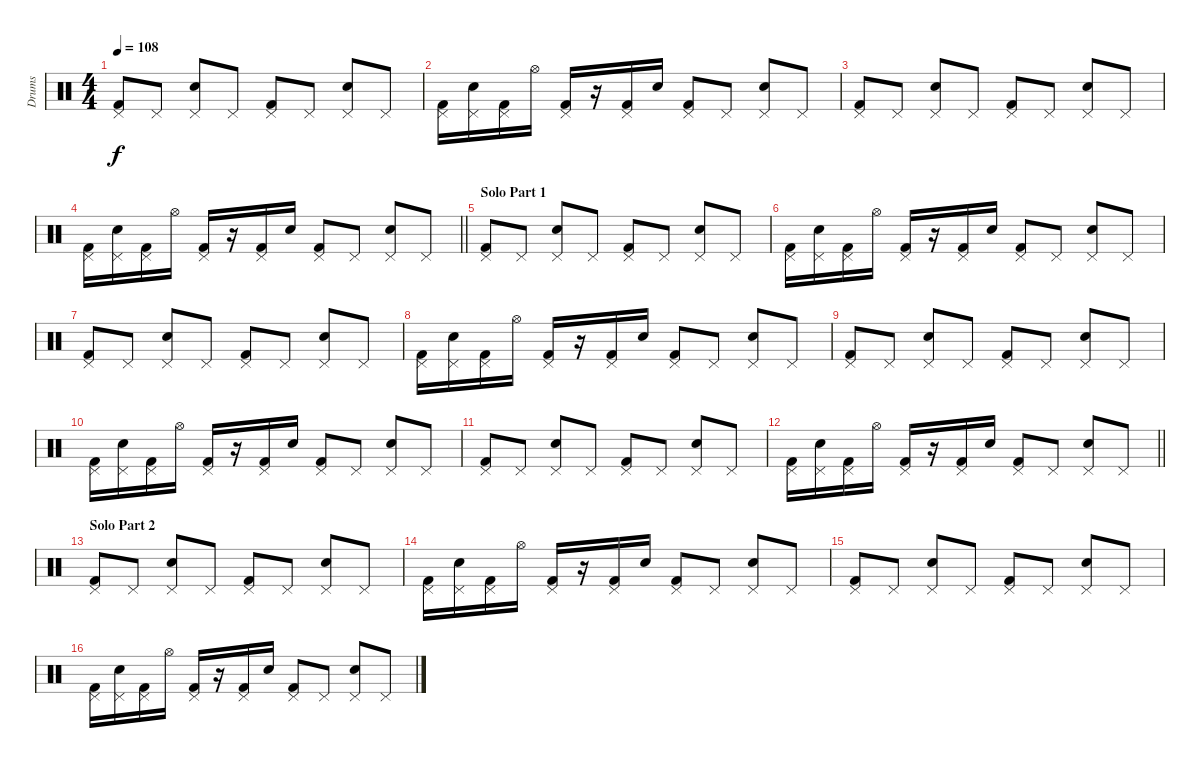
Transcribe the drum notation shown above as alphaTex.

\track ("Drums" "Drums") {instrument percussion}
\staff {score}
\articulation defaults
\ts (4 4)
\tempo 108
\clef neutral
\ks c
("Pedal Hi-Hat (hit)" "Kick (hit) 2").8{dy f} "Pedal Hi-Hat (hit)".8 ("Pedal Hi-Hat (hit)" "Electric Snare (hit)").8 "Pedal Hi-Hat (hit)".8 ("Pedal Hi-Hat (hit)" "Kick (hit) 2").8 "Pedal Hi-Hat (hit)".8 ("Pedal Hi-Hat (hit)" "Electric Snare (hit)").8 "Pedal Hi-Hat (hit)".8 |
("Pedal Hi-Hat (hit)" "Kick (hit) 2").16 ("Pedal Hi-Hat (hit)" "Electric Snare (hit)").16 ("Pedal Hi-Hat (hit)" "Kick (hit) 2").16 "Hi-Hat (open)".16 ("Pedal Hi-Hat (hit)" "Kick (hit) 2").16 r.16 ("Pedal Hi-Hat (hit)" "Kick (hit) 2").16 "Electric Snare (hit)".16 ("Pedal Hi-Hat (hit)" "Kick (hit) 2").8 "Pedal Hi-Hat (hit)".8 ("Pedal Hi-Hat (hit)" "Electric Snare (hit)").8 "Pedal Hi-Hat (hit)".8 |
("Pedal Hi-Hat (hit)" "Kick (hit) 2").8 "Pedal Hi-Hat (hit)".8 ("Pedal Hi-Hat (hit)" "Electric Snare (hit)").8 "Pedal Hi-Hat (hit)".8 ("Pedal Hi-Hat (hit)" "Kick (hit) 2").8 "Pedal Hi-Hat (hit)".8 ("Pedal Hi-Hat (hit)" "Electric Snare (hit)").8 "Pedal Hi-Hat (hit)".8 |
\barLineRight lightlight
("Pedal Hi-Hat (hit)" "Kick (hit) 2").16 ("Pedal Hi-Hat (hit)" "Electric Snare (hit)").16 ("Pedal Hi-Hat (hit)" "Kick (hit) 2").16 "Hi-Hat (open)".16 ("Pedal Hi-Hat (hit)" "Kick (hit) 2").16 r.16 ("Pedal Hi-Hat (hit)" "Kick (hit) 2").16 "Electric Snare (hit)".16 ("Pedal Hi-Hat (hit)" "Kick (hit) 2").8 "Pedal Hi-Hat (hit)".8 ("Pedal Hi-Hat (hit)" "Electric Snare (hit)").8 "Pedal Hi-Hat (hit)".8 |
\section ("" "Solo Part 1")
("Pedal Hi-Hat (hit)" "Kick (hit) 2").8 "Pedal Hi-Hat (hit)".8 ("Pedal Hi-Hat (hit)" "Electric Snare (hit)").8 "Pedal Hi-Hat (hit)".8 ("Pedal Hi-Hat (hit)" "Kick (hit) 2").8 "Pedal Hi-Hat (hit)".8 ("Pedal Hi-Hat (hit)" "Electric Snare (hit)").8 "Pedal Hi-Hat (hit)".8 |
("Pedal Hi-Hat (hit)" "Kick (hit) 2").16 ("Pedal Hi-Hat (hit)" "Electric Snare (hit)").16 ("Pedal Hi-Hat (hit)" "Kick (hit) 2").16 "Hi-Hat (open)".16 ("Pedal Hi-Hat (hit)" "Kick (hit) 2").16 r.16 ("Pedal Hi-Hat (hit)" "Kick (hit) 2").16 "Electric Snare (hit)".16 ("Pedal Hi-Hat (hit)" "Kick (hit) 2").8 "Pedal Hi-Hat (hit)".8 ("Pedal Hi-Hat (hit)" "Electric Snare (hit)").8 "Pedal Hi-Hat (hit)".8 |
("Pedal Hi-Hat (hit)" "Kick (hit) 2").8 "Pedal Hi-Hat (hit)".8 ("Pedal Hi-Hat (hit)" "Electric Snare (hit)").8 "Pedal Hi-Hat (hit)".8 ("Pedal Hi-Hat (hit)" "Kick (hit) 2").8 "Pedal Hi-Hat (hit)".8 ("Pedal Hi-Hat (hit)" "Electric Snare (hit)").8 "Pedal Hi-Hat (hit)".8 |
("Pedal Hi-Hat (hit)" "Kick (hit) 2").16 ("Pedal Hi-Hat (hit)" "Electric Snare (hit)").16 ("Pedal Hi-Hat (hit)" "Kick (hit) 2").16 "Hi-Hat (open)".16 ("Pedal Hi-Hat (hit)" "Kick (hit) 2").16 r.16 ("Pedal Hi-Hat (hit)" "Kick (hit) 2").16 "Electric Snare (hit)".16 ("Pedal Hi-Hat (hit)" "Kick (hit) 2").8 "Pedal Hi-Hat (hit)".8 ("Pedal Hi-Hat (hit)" "Electric Snare (hit)").8 "Pedal Hi-Hat (hit)".8 |
("Pedal Hi-Hat (hit)" "Kick (hit) 2").8 "Pedal Hi-Hat (hit)".8 ("Pedal Hi-Hat (hit)" "Electric Snare (hit)").8 "Pedal Hi-Hat (hit)".8 ("Pedal Hi-Hat (hit)" "Kick (hit) 2").8 "Pedal Hi-Hat (hit)".8 ("Pedal Hi-Hat (hit)" "Electric Snare (hit)").8 "Pedal Hi-Hat (hit)".8 |
("Pedal Hi-Hat (hit)" "Kick (hit) 2").16 ("Pedal Hi-Hat (hit)" "Electric Snare (hit)").16 ("Pedal Hi-Hat (hit)" "Kick (hit) 2").16 "Hi-Hat (open)".16 ("Pedal Hi-Hat (hit)" "Kick (hit) 2").16 r.16 ("Pedal Hi-Hat (hit)" "Kick (hit) 2").16 "Electric Snare (hit)".16 ("Pedal Hi-Hat (hit)" "Kick (hit) 2").8 "Pedal Hi-Hat (hit)".8 ("Pedal Hi-Hat (hit)" "Electric Snare (hit)").8 "Pedal Hi-Hat (hit)".8 |
("Pedal Hi-Hat (hit)" "Kick (hit) 2").8 "Pedal Hi-Hat (hit)".8 ("Pedal Hi-Hat (hit)" "Electric Snare (hit)").8 "Pedal Hi-Hat (hit)".8 ("Pedal Hi-Hat (hit)" "Kick (hit) 2").8 "Pedal Hi-Hat (hit)".8 ("Pedal Hi-Hat (hit)" "Electric Snare (hit)").8 "Pedal Hi-Hat (hit)".8 |
\barLineRight lightlight
("Pedal Hi-Hat (hit)" "Kick (hit) 2").16 ("Pedal Hi-Hat (hit)" "Electric Snare (hit)").16 ("Pedal Hi-Hat (hit)" "Kick (hit) 2").16 "Hi-Hat (open)".16 ("Pedal Hi-Hat (hit)" "Kick (hit) 2").16 r.16 ("Pedal Hi-Hat (hit)" "Kick (hit) 2").16 "Electric Snare (hit)".16 ("Pedal Hi-Hat (hit)" "Kick (hit) 2").8 "Pedal Hi-Hat (hit)".8 ("Pedal Hi-Hat (hit)" "Electric Snare (hit)").8 "Pedal Hi-Hat (hit)".8 |
\section ("" "Solo Part 2")
("Pedal Hi-Hat (hit)" "Kick (hit) 2").8 "Pedal Hi-Hat (hit)".8 ("Pedal Hi-Hat (hit)" "Electric Snare (hit)").8 "Pedal Hi-Hat (hit)".8 ("Pedal Hi-Hat (hit)" "Kick (hit) 2").8 "Pedal Hi-Hat (hit)".8 ("Pedal Hi-Hat (hit)" "Electric Snare (hit)").8 "Pedal Hi-Hat (hit)".8 |
("Pedal Hi-Hat (hit)" "Kick (hit) 2").16 ("Pedal Hi-Hat (hit)" "Electric Snare (hit)").16 ("Pedal Hi-Hat (hit)" "Kick (hit) 2").16 "Hi-Hat (open)".16 ("Pedal Hi-Hat (hit)" "Kick (hit) 2").16 r.16 ("Pedal Hi-Hat (hit)" "Kick (hit) 2").16 "Electric Snare (hit)".16 ("Pedal Hi-Hat (hit)" "Kick (hit) 2").8 "Pedal Hi-Hat (hit)".8 ("Pedal Hi-Hat (hit)" "Electric Snare (hit)").8 "Pedal Hi-Hat (hit)".8 |
("Pedal Hi-Hat (hit)" "Kick (hit) 2").8 "Pedal Hi-Hat (hit)".8 ("Pedal Hi-Hat (hit)" "Electric Snare (hit)").8 "Pedal Hi-Hat (hit)".8 ("Pedal Hi-Hat (hit)" "Kick (hit) 2").8 "Pedal Hi-Hat (hit)".8 ("Pedal Hi-Hat (hit)" "Electric Snare (hit)").8 "Pedal Hi-Hat (hit)".8 |
("Pedal Hi-Hat (hit)" "Kick (hit) 2").16 ("Pedal Hi-Hat (hit)" "Electric Snare (hit)").16 ("Pedal Hi-Hat (hit)" "Kick (hit) 2").16 "Hi-Hat (open)".16 ("Pedal Hi-Hat (hit)" "Kick (hit) 2").16 r.16 ("Pedal Hi-Hat (hit)" "Kick (hit) 2").16 "Electric Snare (hit)".16 ("Pedal Hi-Hat (hit)" "Kick (hit) 2").8 "Pedal Hi-Hat (hit)".8 ("Pedal Hi-Hat (hit)" "Electric Snare (hit)").8 "Pedal Hi-Hat (hit)".8
